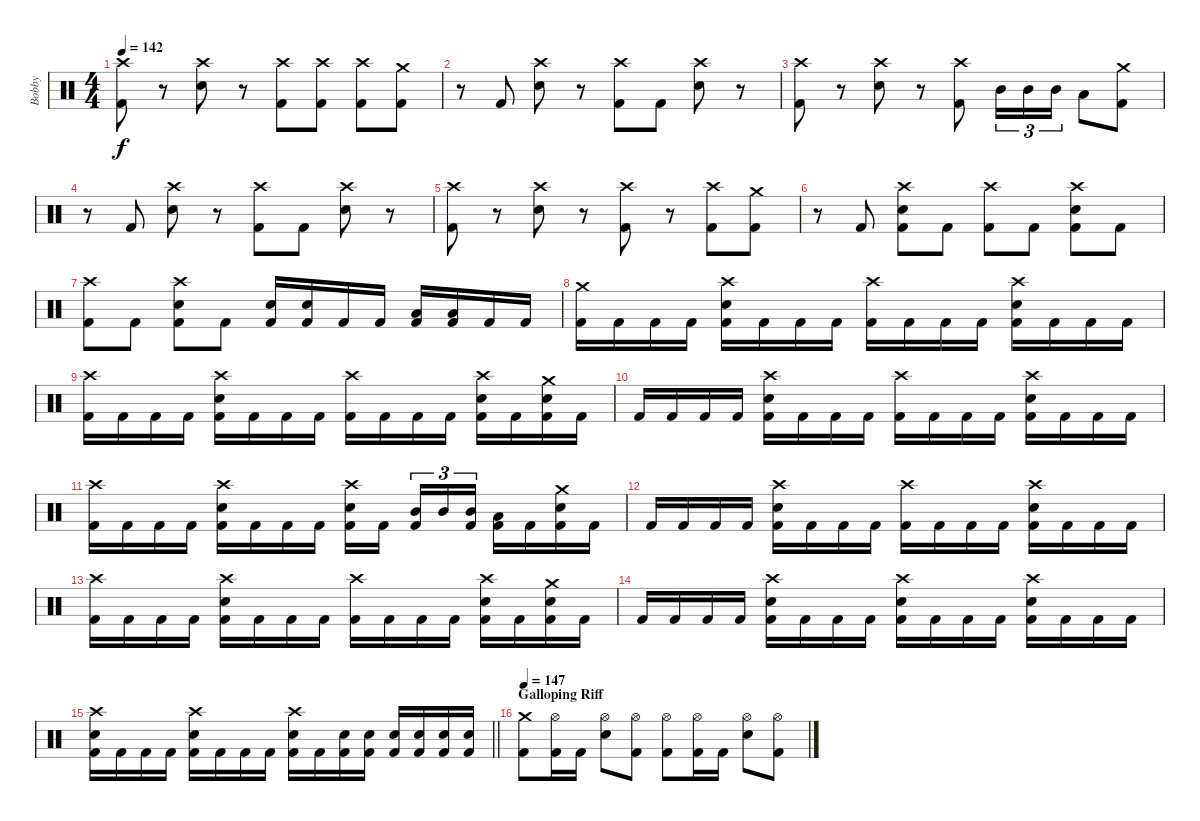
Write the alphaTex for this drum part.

\track ("Bobby" "Bobby") {instrument percussion}
\staff {score}
\articulation defaults
\ts (4 4)
\tempo 142
\clef neutral
\ks c
("Crash high (hit)" "Kick (hit) 2").8{dy f} r.8 ("Crash high (hit)" "Electric Snare (hit)").8 r.8 ("Crash high (hit)" "Kick (hit) 2").8 ("Crash high (hit)" "Kick (hit) 2").8 ("Crash high (hit)" "Kick (hit) 2").8 ("Crash medium (hit)" "Kick (hit) 2").8 |
r.8 "Kick (hit) 2".8 ("Crash high (hit)" "Electric Snare (hit)").8 r.8 ("Crash high (hit)" "Kick (hit) 2").8 "Kick (hit) 2".8 ("Crash high (hit)" "Electric Snare (hit)").8 r.8 |
("Crash high (hit)" "Kick (hit) 2").8 r.8 ("Crash high (hit)" "Electric Snare (hit)").8 r.8 ("Crash high (hit)" "Kick (hit) 2").8 "Mid Tom (hit)".16{tu (3 2)} "Mid Tom (hit)".16{tu (3 2)} "Mid Tom (hit)".16{tu (3 2)} "Low Tom (hit)".8 ("Crash medium (hit)" "Kick (hit) 2").8 |
r.8 "Kick (hit) 2".8 ("Crash high (hit)" "Electric Snare (hit)").8 r.8 ("Crash high (hit)" "Kick (hit) 2").8 "Kick (hit) 2".8 ("Crash high (hit)" "Electric Snare (hit)").8 r.8 |
("Crash high (hit)" "Kick (hit) 2").8 r.8 ("Crash high (hit)" "Electric Snare (hit)").8 r.8 ("Crash high (hit)" "Kick (hit) 2").8 r.8 ("Crash high (hit)" "Kick (hit) 2").8 ("Crash medium (hit)" "Kick (hit) 2").8 |
r.8 "Kick (hit) 2".8 ("Crash high (hit)" "Electric Snare (hit)" "Kick (hit) 2").8 "Kick (hit) 2".8 ("Crash high (hit)" "Kick (hit) 2").8 "Kick (hit) 2".8 ("Crash high (hit)" "Electric Snare (hit)" "Kick (hit) 2").8 "Kick (hit) 2".8 |
("Crash high (hit)" "Kick (hit) 2").8 "Kick (hit) 2".8 ("Crash high (hit)" "Electric Snare (hit)" "Kick (hit) 2").8 "Kick (hit) 2".8 ("Electric Snare (hit)" "Kick (hit) 2").16 ("Electric Snare (hit)" "Kick (hit) 2").16 "Kick (hit) 2".16 "Kick (hit) 2".16 ("Low Tom (hit)" "Kick (hit) 2").16 ("Low Tom (hit)" "Kick (hit) 2").16 "Kick (hit) 2".16 "Kick (hit) 2".16 |
("Crash medium (hit)" "Kick (hit) 2").16 "Kick (hit) 2".16 "Kick (hit) 2".16 "Kick (hit) 2".16 ("Crash high (hit)" "Electric Snare (hit)" "Kick (hit) 2").16 "Kick (hit) 2".16 "Kick (hit) 2".16 "Kick (hit) 2".16 ("Crash high (hit)" "Kick (hit) 2").16 "Kick (hit) 2".16 "Kick (hit) 2".16 "Kick (hit) 2".16 ("Crash high (hit)" "Electric Snare (hit)" "Kick (hit) 2").16 "Kick (hit) 2".16 "Kick (hit) 2".16 "Kick (hit) 2".16 |
("Crash high (hit)" "Kick (hit) 2").16 "Kick (hit) 2".16 "Kick (hit) 2".16 "Kick (hit) 2".16 ("Crash high (hit)" "Electric Snare (hit)" "Kick (hit) 2").16 "Kick (hit) 2".16 "Kick (hit) 2".16 "Kick (hit) 2".16 ("Crash high (hit)" "Kick (hit) 2").16 "Kick (hit) 2".16 "Kick (hit) 2".16 "Kick (hit) 2".16 ("Crash high (hit)" "Electric Snare (hit)" "Kick (hit) 2").16 "Kick (hit) 2".16 ("Crash medium (hit)" "Electric Snare (hit)" "Kick (hit) 2").16 "Kick (hit) 2".16 |
"Kick (hit) 2".16 "Kick (hit) 2".16 "Kick (hit) 2".16 "Kick (hit) 2".16 ("Crash high (hit)" "Electric Snare (hit)" "Kick (hit) 2").16 "Kick (hit) 2".16 "Kick (hit) 2".16 "Kick (hit) 2".16 ("Crash high (hit)" "Kick (hit) 2").16 "Kick (hit) 2".16 "Kick (hit) 2".16 "Kick (hit) 2".16 ("Crash high (hit)" "Electric Snare (hit)" "Kick (hit) 2").16 "Kick (hit) 2".16 "Kick (hit) 2".16 "Kick (hit) 2".16 |
("Crash high (hit)" "Kick (hit) 2").16 "Kick (hit) 2".16 "Kick (hit) 2".16 "Kick (hit) 2".16 ("Crash high (hit)" "Electric Snare (hit)" "Kick (hit) 2").16 "Kick (hit) 2".16 "Kick (hit) 2".16 "Kick (hit) 2".16 ("Crash high (hit)" "Electric Snare (hit)" "Kick (hit) 2").16 "Kick (hit) 2".16{beam splitsecondary} ("Mid Tom (hit)" "Kick (hit) 2").16{tu (3 2)} "Mid Tom (hit)".16{tu (3 2)} ("Mid Tom (hit)" "Kick (hit) 2").16{tu (3 2)} ("Low Tom (hit)" "Kick (hit) 2").16 "Kick (hit) 2".16 ("Crash medium (hit)" "Electric Snare (hit)" "Kick (hit) 2").16 "Kick (hit) 2".16 |
"Kick (hit) 2".16 "Kick (hit) 2".16 "Kick (hit) 2".16 "Kick (hit) 2".16 ("Crash high (hit)" "Electric Snare (hit)" "Kick (hit) 2").16 "Kick (hit) 2".16 "Kick (hit) 2".16 "Kick (hit) 2".16 ("Crash high (hit)" "Kick (hit) 2").16 "Kick (hit) 2".16 "Kick (hit) 2".16 "Kick (hit) 2".16 ("Crash high (hit)" "Electric Snare (hit)" "Kick (hit) 2").16 "Kick (hit) 2".16 "Kick (hit) 2".16 "Kick (hit) 2".16 |
("Crash high (hit)" "Kick (hit) 2").16 "Kick (hit) 2".16 "Kick (hit) 2".16 "Kick (hit) 2".16 ("Crash high (hit)" "Electric Snare (hit)" "Kick (hit) 2").16 "Kick (hit) 2".16 "Kick (hit) 2".16 "Kick (hit) 2".16 ("Crash high (hit)" "Kick (hit) 2").16 "Kick (hit) 2".16 "Kick (hit) 2".16 "Kick (hit) 2".16 ("Crash high (hit)" "Electric Snare (hit)" "Kick (hit) 2").16 "Kick (hit) 2".16 ("Crash medium (hit)" "Electric Snare (hit)" "Kick (hit) 2").16 "Kick (hit) 2".16 |
"Kick (hit) 2".16 "Kick (hit) 2".16 "Kick (hit) 2".16 "Kick (hit) 2".16 ("Crash high (hit)" "Electric Snare (hit)" "Kick (hit) 2").16 "Kick (hit) 2".16 "Kick (hit) 2".16 "Kick (hit) 2".16 ("Crash high (hit)" "Electric Snare (hit)" "Kick (hit) 2").16 "Kick (hit) 2".16 "Kick (hit) 2".16 "Kick (hit) 2".16 ("Crash high (hit)" "Electric Snare (hit)" "Kick (hit) 2").16 "Kick (hit) 2".16 "Kick (hit) 2".16 "Kick (hit) 2".16 |
\barLineRight lightlight
("Crash high (hit)" "Electric Snare (hit)" "Kick (hit) 2").16 "Kick (hit) 2".16 "Kick (hit) 2".16 "Kick (hit) 2".16 ("Crash high (hit)" "Electric Snare (hit)" "Kick (hit) 2").16 "Kick (hit) 2".16 "Kick (hit) 2".16 "Kick (hit) 2".16 ("Crash high (hit)" "Electric Snare (hit)" "Kick (hit) 2").16 "Kick (hit) 2".16 ("Electric Snare (hit)" "Kick (hit) 2").16 ("Electric Snare (hit)" "Kick (hit) 2").16 ("Electric Snare (hit)" "Kick (hit) 2").16 ("Electric Snare (hit)" "Kick (hit) 2").16 ("Electric Snare (hit)" "Kick (hit) 2").16 ("Electric Snare (hit)" "Kick (hit) 2").16 |
\section ("" "Galloping Riff")
\tempo 140
\tempo 147
("Crash medium (hit)" "Kick (hit) 2").8 ("Hi-Hat (open)" "Kick (hit) 2").16 "Kick (hit) 2".16 ("Hi-Hat (open)" "Electric Snare (hit)").8 ("Hi-Hat (open)" "Kick (hit) 2").8 ("Hi-Hat (open)" "Kick (hit) 2").8 ("Hi-Hat (open)" "Kick (hit) 2").16 "Kick (hit) 2".16 ("Hi-Hat (open)" "Electric Snare (hit)").8 ("Hi-Hat (open)" "Kick (hit) 2").8
